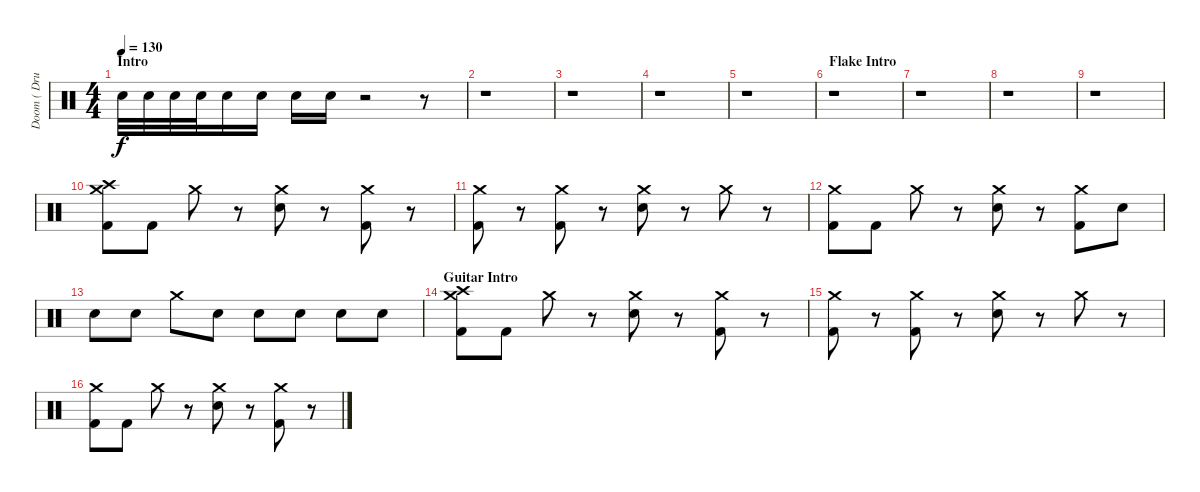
\track ("Doom ( Drums )" "Doom ( Dru") {instrument percussion}
\staff {score}
\articulation defaults
\ts (4 4)
\section ("" "Intro")
\tempo 130
\clef neutral
\ks c "Electric Snare (hit)".32{dy f} "Electric Snare (hit)".32 "Electric Snare (hit)".32 "Electric Snare (hit)".32 "Electric Snare (hit)".16 "Electric Snare (hit)".16 "Electric Snare (hit)".16 "Electric Snare (hit)".16
r.2 r.8 |
r.1 |
r.1 |
r.1 |
r.1 |
\section ("" "Flake Intro")
r.1 |
r.1 |
r.1 |
r.1 |
("Crash high (hit)" "Kick (hit) 2" "Crash medium (hit)").8 "Kick (hit) 2".8 "Crash medium (hit)".8 r.8 ("Electric Snare (hit)" "Crash medium (hit)").8 r.8 ("Kick (hit) 2" "Crash medium (hit)").8 r.8 |
("Kick (hit) 2" "Crash medium (hit)").8 r.8 ("Kick (hit) 2" "Crash medium (hit)").8 r.8 ("Electric Snare (hit)" "Crash medium (hit)").8 r.8 "Crash medium (hit)".8 r.8 |
("Kick (hit) 2" "Crash medium (hit)").8 "Kick (hit) 2".8 "Crash medium (hit)".8 r.8 ("Electric Snare (hit)" "Crash medium (hit)").8 r.8 ("Kick (hit) 2" "Crash medium (hit)").8 "Electric Snare (hit)".8 |
"Electric Snare (hit)".8 "Electric Snare (hit)".8 "Crash medium (hit)".8 "Electric Snare (hit)".8 "Electric Snare (hit)".8 "Electric Snare (hit)".8 "Electric Snare (hit)".8 "Electric Snare (hit)".8 |
\section ("" "Guitar Intro")
("Crash high (hit)" "Kick (hit) 2" "Crash medium (hit)").8 "Kick (hit) 2".8 "Crash medium (hit)".8 r.8 ("Electric Snare (hit)" "Crash medium (hit)").8 r.8 ("Kick (hit) 2" "Crash medium (hit)").8 r.8 |
("Kick (hit) 2" "Crash medium (hit)").8 r.8 ("Kick (hit) 2" "Crash medium (hit)").8 r.8 ("Electric Snare (hit)" "Crash medium (hit)").8 r.8 "Crash medium (hit)".8 r.8 |
("Kick (hit) 2" "Crash medium (hit)").8 "Kick (hit) 2".8 "Crash medium (hit)".8 r.8 ("Electric Snare (hit)" "Crash medium (hit)").8 r.8 ("Kick (hit) 2" "Crash medium (hit)").8 r.8
